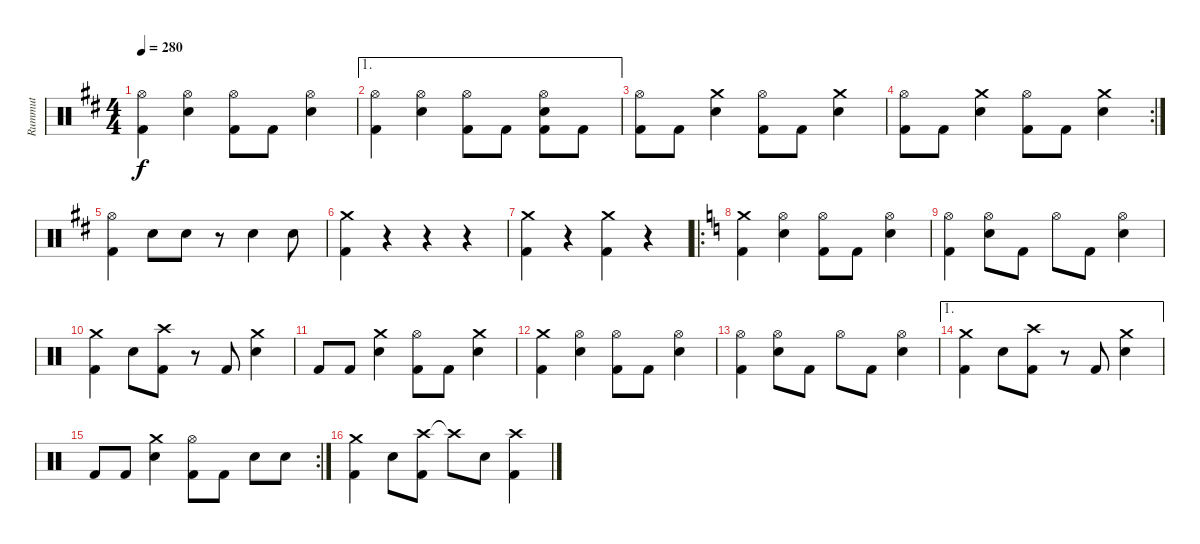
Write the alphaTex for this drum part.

\track ("Rummut" "Rummut") {instrument percussion}
\staff {score}
\articulation defaults
\ts (4 4)
\tempo 280
\clef neutral
\ks d
("Hi-Hat (open)" "Kick (hit) 2").4{dy f} ("Hi-Hat (open)" "Snare (hit) 2").4 ("Hi-Hat (open)" "Kick (hit) 2").8 "Kick (hit) 2".8 ("Hi-Hat (open)" "Snare (hit) 2").4 |
\ae 1
("Hi-Hat (open)" "Kick (hit) 2").4 ("Hi-Hat (open)" "Snare (hit) 2").4 ("Hi-Hat (open)" "Kick (hit) 2").8 "Kick (hit) 2".8 ("Hi-Hat (open)" "Snare (hit) 2" "Kick (hit) 2").8 "Kick (hit) 2".8 |
("Hi-Hat (open)" "Kick (hit) 2").8 "Kick (hit) 2".8 ("Crash medium (hit)" "Snare (hit) 2").4 ("Hi-Hat (open)" "Kick (hit) 2").8 "Kick (hit) 2".8 ("Crash medium (hit)" "Snare (hit) 2").4 |
\rc 2
("Hi-Hat (open)" "Kick (hit) 2").8 "Kick (hit) 2".8 ("Crash medium (hit)" "Snare (hit) 2").4 ("Hi-Hat (open)" "Kick (hit) 2").8 "Kick (hit) 2".8 ("Crash medium (hit)" "Snare (hit) 2").4 |
("Hi-Hat (open)" "Kick (hit) 2").4 "Snare (hit) 2".8 "Snare (hit) 2".8 r.8 "Snare (hit) 2".4 "Snare (hit) 2".8 |
("Crash medium (hit)" "Kick (hit) 2").4 r.4 r.4 r.4 |
("Crash medium (hit)" "Kick (hit) 2").4 r.4 ("Crash medium (hit)" "Kick (hit) 2").4 r.4 |
\ro
\ks c
("Crash medium (hit)" "Kick (hit) 2").4 ("Hi-Hat (open)" "Snare (hit) 2").4 ("Hi-Hat (open)" "Kick (hit) 2").8 "Kick (hit) 2".8 ("Hi-Hat (open)" "Snare (hit) 2").4 |
("Hi-Hat (open)" "Kick (hit) 2").4 ("Hi-Hat (open)" "Snare (hit) 2").8 "Kick (hit) 2".8 "Hi-Hat (open)".8 "Kick (hit) 2".8 ("Hi-Hat (open)" "Snare (hit) 2").4 |
("Crash medium (hit)" "Kick (hit) 2").4 "Snare (hit) 2".8 ("Crash high (hit)" "Kick (hit) 2").8 r.8 "Kick (hit) 2".8 ("Crash medium (hit)" "Snare (hit) 2").4 |
"Kick (hit) 2".8 "Kick (hit) 2".8 ("Crash medium (hit)" "Snare (hit) 2").4 ("Hi-Hat (open)" "Kick (hit) 2").8 "Kick (hit) 2".8 ("Crash medium (hit)" "Snare (hit) 2").4 |
("Crash medium (hit)" "Kick (hit) 2").4 ("Hi-Hat (open)" "Snare (hit) 2").4 ("Hi-Hat (open)" "Kick (hit) 2").8 "Kick (hit) 2".8 ("Hi-Hat (open)" "Snare (hit) 2").4 |
("Hi-Hat (open)" "Kick (hit) 2").4 ("Hi-Hat (open)" "Snare (hit) 2").8 "Kick (hit) 2".8 "Hi-Hat (open)".8 "Kick (hit) 2".8 ("Hi-Hat (open)" "Snare (hit) 2").4 |
\ae 1
("Crash medium (hit)" "Kick (hit) 2").4 "Snare (hit) 2".8 ("Crash high (hit)" "Kick (hit) 2").8 r.8 "Kick (hit) 2".8 ("Crash medium (hit)" "Snare (hit) 2").4 |
\rc 2 "Kick (hit) 2".8 "Kick (hit) 2".8
("Crash medium (hit)" "Snare (hit) 2").4 ("Hi-Hat (open)" "Kick (hit) 2").8 "Kick (hit) 2".8 "Snare (hit) 2".8 "Snare (hit) 2".8 |
("Crash medium (hit)" "Kick (hit) 2").4 "Snare (hit) 2".8 ("Crash high (hit)" "Kick (hit) 2").8 "Crash high (hit)"{t}.8 "Snare (hit) 2".8 ("Crash high (hit)" "Kick (hit) 2").4
